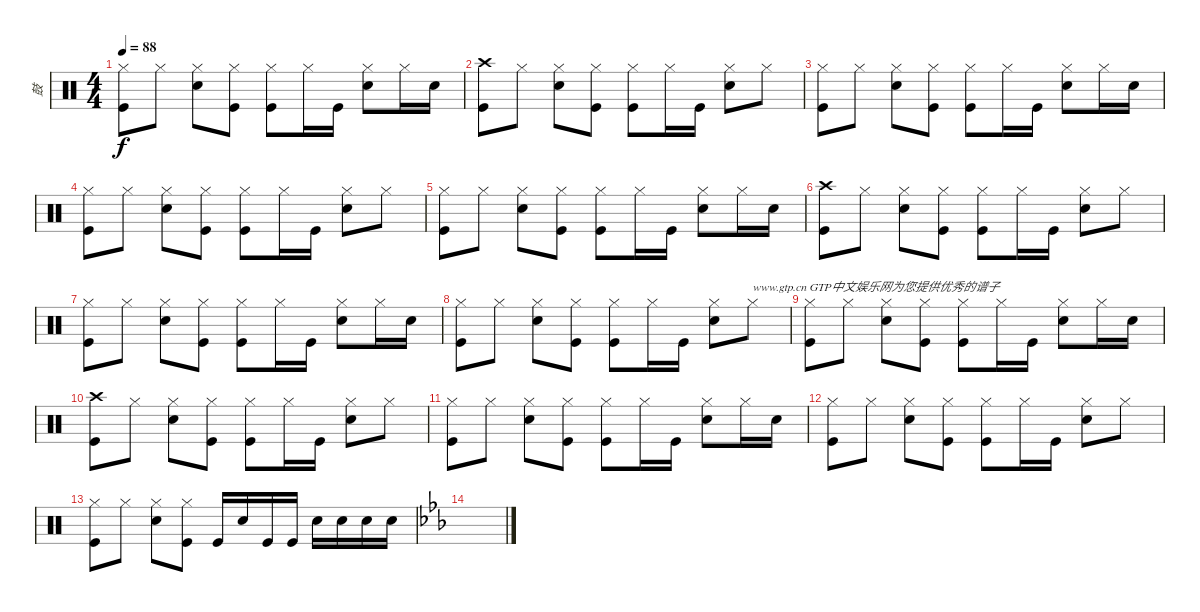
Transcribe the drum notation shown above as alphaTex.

\track ("鼓" "鼓") {instrument percussion}
\staff {score}
\articulation defaults
\ts (4 4)
\tempo 88
\clef neutral
\ks c
("Hi-Hat (closed)" "Kick (hit)").8{dy f} "Hi-Hat (closed)".8 ("Hi-Hat (closed)" "Snare (hit) 2").8 ("Hi-Hat (closed)" "Kick (hit)").8 ("Hi-Hat (closed)" "Kick (hit)").8 "Hi-Hat (closed)".16 "Kick (hit)".16 ("Hi-Hat (closed)" "Snare (hit) 2").8 "Hi-Hat (closed)".16 "Snare (hit) 2".16 |
("Crash high (hit)" "Kick (hit)").8 "Hi-Hat (closed)".8 ("Hi-Hat (closed)" "Snare (hit) 2").8 ("Hi-Hat (closed)" "Kick (hit)").8 ("Hi-Hat (closed)" "Kick (hit)").8 "Hi-Hat (closed)".16 "Kick (hit)".16 ("Hi-Hat (closed)" "Snare (hit) 2").8 "Hi-Hat (closed)".8 |
("Hi-Hat (closed)" "Kick (hit)").8 "Hi-Hat (closed)".8 ("Hi-Hat (closed)" "Snare (hit) 2").8 ("Hi-Hat (closed)" "Kick (hit)").8 ("Hi-Hat (closed)" "Kick (hit)").8 "Hi-Hat (closed)".16 "Kick (hit)".16 ("Hi-Hat (closed)" "Snare (hit) 2").8 "Hi-Hat (closed)".16 "Snare (hit) 2".16 |
("Hi-Hat (closed)" "Kick (hit)").8 "Hi-Hat (closed)".8 ("Hi-Hat (closed)" "Snare (hit) 2").8 ("Hi-Hat (closed)" "Kick (hit)").8 ("Hi-Hat (closed)" "Kick (hit)").8 "Hi-Hat (closed)".16 "Kick (hit)".16 ("Hi-Hat (closed)" "Snare (hit) 2").8 "Hi-Hat (closed)".8 |
("Hi-Hat (closed)" "Kick (hit)").8 "Hi-Hat (closed)".8 ("Hi-Hat (closed)" "Snare (hit) 2").8 ("Hi-Hat (closed)" "Kick (hit)").8 ("Hi-Hat (closed)" "Kick (hit)").8 "Hi-Hat (closed)".16 "Kick (hit)".16 ("Hi-Hat (closed)" "Snare (hit) 2").8 "Hi-Hat (closed)".16 "Snare (hit) 2".16 |
("Crash high (hit)" "Kick (hit)").8 "Hi-Hat (closed)".8 ("Hi-Hat (closed)" "Snare (hit) 2").8 ("Hi-Hat (closed)" "Kick (hit)").8 ("Hi-Hat (closed)" "Kick (hit)").8 "Hi-Hat (closed)".16 "Kick (hit)".16 ("Hi-Hat (closed)" "Snare (hit) 2").8 "Hi-Hat (closed)".8 |
("Hi-Hat (closed)" "Kick (hit)").8 "Hi-Hat (closed)".8 ("Hi-Hat (closed)" "Snare (hit) 2").8 ("Hi-Hat (closed)" "Kick (hit)").8 ("Hi-Hat (closed)" "Kick (hit)").8 "Hi-Hat (closed)".16 "Kick (hit)".16 ("Hi-Hat (closed)" "Snare (hit) 2").8 "Hi-Hat (closed)".16 "Snare (hit) 2".16 |
("Hi-Hat (closed)" "Kick (hit)").8 "Hi-Hat (closed)".8 ("Hi-Hat (closed)" "Snare (hit) 2").8 ("Hi-Hat (closed)" "Kick (hit)").8 ("Hi-Hat (closed)" "Kick (hit)").8 "Hi-Hat (closed)".16 "Kick (hit)".16 ("Hi-Hat (closed)" "Snare (hit) 2").8 "Hi-Hat (closed)".8{txt "www.gtp.cn GTP中文娱乐网为您提供优秀的谱子"} |
("Hi-Hat (closed)" "Kick (hit)").8 "Hi-Hat (closed)".8 ("Hi-Hat (closed)" "Snare (hit) 2").8 ("Hi-Hat (closed)" "Kick (hit)").8 ("Hi-Hat (closed)" "Kick (hit)").8 "Hi-Hat (closed)".16 "Kick (hit)".16 ("Hi-Hat (closed)" "Snare (hit) 2").8 "Hi-Hat (closed)".16 "Snare (hit) 2".16 |
("Crash high (hit)" "Kick (hit)").8 "Hi-Hat (closed)".8 ("Hi-Hat (closed)" "Snare (hit) 2").8 ("Hi-Hat (closed)" "Kick (hit)").8 ("Hi-Hat (closed)" "Kick (hit)").8 "Hi-Hat (closed)".16 "Kick (hit)".16 ("Hi-Hat (closed)" "Snare (hit) 2").8 "Hi-Hat (closed)".8 |
("Hi-Hat (closed)" "Kick (hit)").8 "Hi-Hat (closed)".8 ("Hi-Hat (closed)" "Snare (hit) 2").8 ("Hi-Hat (closed)" "Kick (hit)").8 ("Hi-Hat (closed)" "Kick (hit)").8 "Hi-Hat (closed)".16 "Kick (hit)".16 ("Hi-Hat (closed)" "Snare (hit) 2").8 "Hi-Hat (closed)".16 "Snare (hit) 2".16 |
("Hi-Hat (closed)" "Kick (hit)").8 "Hi-Hat (closed)".8 ("Hi-Hat (closed)" "Snare (hit) 2").8 ("Hi-Hat (closed)" "Kick (hit)").8 ("Hi-Hat (closed)" "Kick (hit)").8 "Hi-Hat (closed)".16 "Kick (hit)".16 ("Hi-Hat (closed)" "Snare (hit) 2").8 "Hi-Hat (closed)".8 |
("Hi-Hat (closed)" "Kick (hit)").8 "Hi-Hat (closed)".8 ("Hi-Hat (closed)" "Snare (hit) 2").8 ("Hi-Hat (closed)" "Kick (hit)").8 "Kick (hit)".16 "Snare (hit) 2".16 "Kick (hit)".16 "Kick (hit)".16 "Snare (hit) 2".16 "Snare (hit) 2".16 "Snare (hit) 2".16 "Snare (hit) 2".16 |
\ks eb
